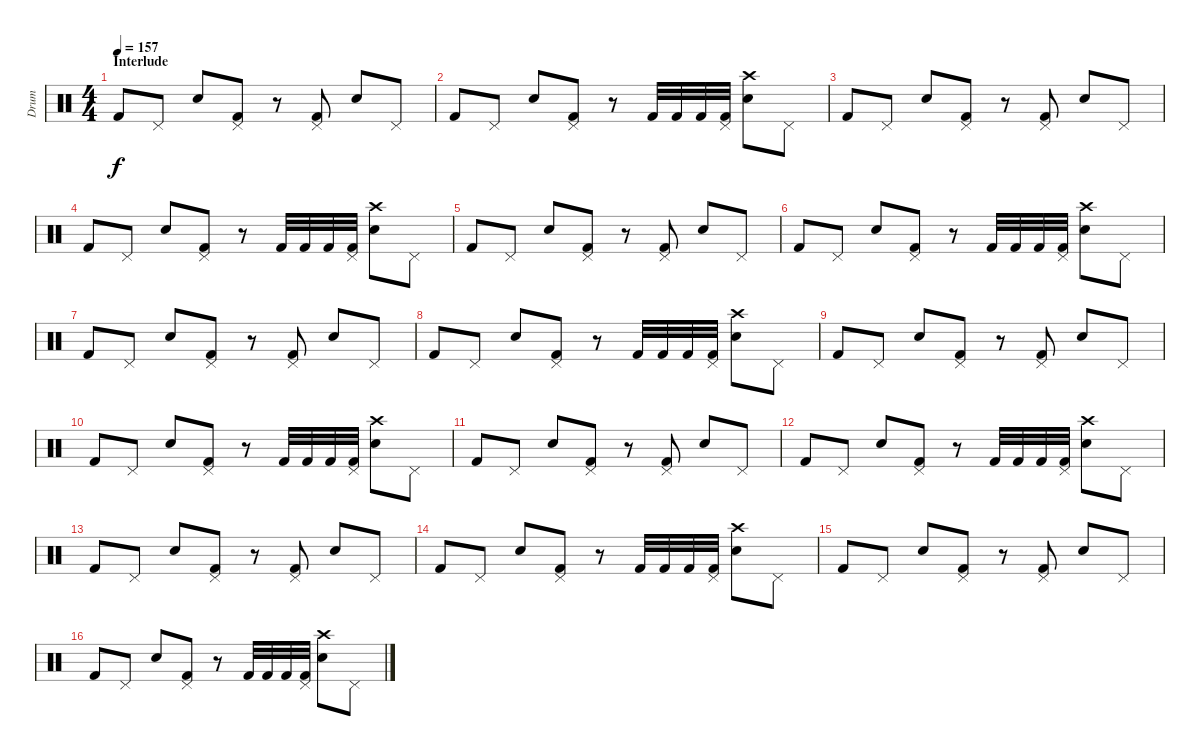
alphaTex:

\track ("Drum" "Drum") {instrument percussion}
\staff {score}
\articulation defaults
\ts (4 4)
\section ("" "Interlude")
\tempo 157
\clef neutral
\ks c "Kick (hit) 2".8{dy f} "Pedal Hi-Hat (hit)".8 "Electric Snare (hit)".8
("Pedal Hi-Hat (hit)" "Kick (hit) 2").8 r.8 ("Pedal Hi-Hat (hit)" "Kick (hit) 2").8 "Electric Snare (hit)".8 "Pedal Hi-Hat (hit)".8 |
"Kick (hit) 2".8 "Pedal Hi-Hat (hit)".8 "Electric Snare (hit)".8 ("Pedal Hi-Hat (hit)" "Kick (hit) 2").8 r.8 "Kick (hit) 2".32 "Kick (hit) 2".32 "Kick (hit) 2".32 ("Pedal Hi-Hat (hit)" "Kick (hit) 2").32 ("Crash high (hit)" "Electric Snare (hit)").8 "Pedal Hi-Hat (hit)".8 |
"Kick (hit) 2".8 "Pedal Hi-Hat (hit)".8 "Electric Snare (hit)".8 ("Pedal Hi-Hat (hit)" "Kick (hit) 2").8 r.8 ("Pedal Hi-Hat (hit)" "Kick (hit) 2").8 "Electric Snare (hit)".8 "Pedal Hi-Hat (hit)".8 |
"Kick (hit) 2".8 "Pedal Hi-Hat (hit)".8 "Electric Snare (hit)".8 ("Pedal Hi-Hat (hit)" "Kick (hit) 2").8 r.8 "Kick (hit) 2".32 "Kick (hit) 2".32 "Kick (hit) 2".32 ("Pedal Hi-Hat (hit)" "Kick (hit) 2").32 ("Crash high (hit)" "Electric Snare (hit)").8 "Pedal Hi-Hat (hit)".8 |
"Kick (hit) 2".8 "Pedal Hi-Hat (hit)".8 "Electric Snare (hit)".8 ("Pedal Hi-Hat (hit)" "Kick (hit) 2").8 r.8 ("Pedal Hi-Hat (hit)" "Kick (hit) 2").8 "Electric Snare (hit)".8 "Pedal Hi-Hat (hit)".8 |
"Kick (hit) 2".8 "Pedal Hi-Hat (hit)".8 "Electric Snare (hit)".8 ("Pedal Hi-Hat (hit)" "Kick (hit) 2").8 r.8 "Kick (hit) 2".32 "Kick (hit) 2".32 "Kick (hit) 2".32 ("Pedal Hi-Hat (hit)" "Kick (hit) 2").32 ("Crash high (hit)" "Electric Snare (hit)").8 "Pedal Hi-Hat (hit)".8 |
"Kick (hit) 2".8 "Pedal Hi-Hat (hit)".8 "Electric Snare (hit)".8 ("Pedal Hi-Hat (hit)" "Kick (hit) 2").8 r.8 ("Pedal Hi-Hat (hit)" "Kick (hit) 2").8 "Electric Snare (hit)".8 "Pedal Hi-Hat (hit)".8 |
"Kick (hit) 2".8 "Pedal Hi-Hat (hit)".8 "Electric Snare (hit)".8 ("Pedal Hi-Hat (hit)" "Kick (hit) 2").8 r.8 "Kick (hit) 2".32 "Kick (hit) 2".32 "Kick (hit) 2".32 ("Pedal Hi-Hat (hit)" "Kick (hit) 2").32 ("Crash high (hit)" "Electric Snare (hit)").8 "Pedal Hi-Hat (hit)".8 |
"Kick (hit) 2".8 "Pedal Hi-Hat (hit)".8 "Electric Snare (hit)".8 ("Pedal Hi-Hat (hit)" "Kick (hit) 2").8 r.8 ("Pedal Hi-Hat (hit)" "Kick (hit) 2").8 "Electric Snare (hit)".8 "Pedal Hi-Hat (hit)".8 |
"Kick (hit) 2".8 "Pedal Hi-Hat (hit)".8 "Electric Snare (hit)".8 ("Pedal Hi-Hat (hit)" "Kick (hit) 2").8 r.8 "Kick (hit) 2".32 "Kick (hit) 2".32 "Kick (hit) 2".32 ("Pedal Hi-Hat (hit)" "Kick (hit) 2").32 ("Crash high (hit)" "Electric Snare (hit)").8 "Pedal Hi-Hat (hit)".8 |
"Kick (hit) 2".8 "Pedal Hi-Hat (hit)".8 "Electric Snare (hit)".8 ("Pedal Hi-Hat (hit)" "Kick (hit) 2").8 r.8 ("Pedal Hi-Hat (hit)" "Kick (hit) 2").8 "Electric Snare (hit)".8 "Pedal Hi-Hat (hit)".8 |
"Kick (hit) 2".8 "Pedal Hi-Hat (hit)".8 "Electric Snare (hit)".8 ("Pedal Hi-Hat (hit)" "Kick (hit) 2").8 r.8 "Kick (hit) 2".32 "Kick (hit) 2".32 "Kick (hit) 2".32 ("Pedal Hi-Hat (hit)" "Kick (hit) 2").32 ("Crash high (hit)" "Electric Snare (hit)").8 "Pedal Hi-Hat (hit)".8 |
"Kick (hit) 2".8 "Pedal Hi-Hat (hit)".8 "Electric Snare (hit)".8 ("Pedal Hi-Hat (hit)" "Kick (hit) 2").8 r.8 ("Pedal Hi-Hat (hit)" "Kick (hit) 2").8 "Electric Snare (hit)".8 "Pedal Hi-Hat (hit)".8 |
"Kick (hit) 2".8 "Pedal Hi-Hat (hit)".8 "Electric Snare (hit)".8 ("Pedal Hi-Hat (hit)" "Kick (hit) 2").8 r.8 "Kick (hit) 2".32 "Kick (hit) 2".32 "Kick (hit) 2".32 ("Pedal Hi-Hat (hit)" "Kick (hit) 2").32 ("Crash high (hit)" "Electric Snare (hit)").8 "Pedal Hi-Hat (hit)".8 |
"Kick (hit) 2".8 "Pedal Hi-Hat (hit)".8 "Electric Snare (hit)".8 ("Pedal Hi-Hat (hit)" "Kick (hit) 2").8 r.8 ("Pedal Hi-Hat (hit)" "Kick (hit) 2").8 "Electric Snare (hit)".8 "Pedal Hi-Hat (hit)".8 |
"Kick (hit) 2".8 "Pedal Hi-Hat (hit)".8 "Electric Snare (hit)".8 ("Pedal Hi-Hat (hit)" "Kick (hit) 2").8 r.8 "Kick (hit) 2".32 "Kick (hit) 2".32 "Kick (hit) 2".32 ("Pedal Hi-Hat (hit)" "Kick (hit) 2").32 ("Crash high (hit)" "Electric Snare (hit)").8 "Pedal Hi-Hat (hit)".8
